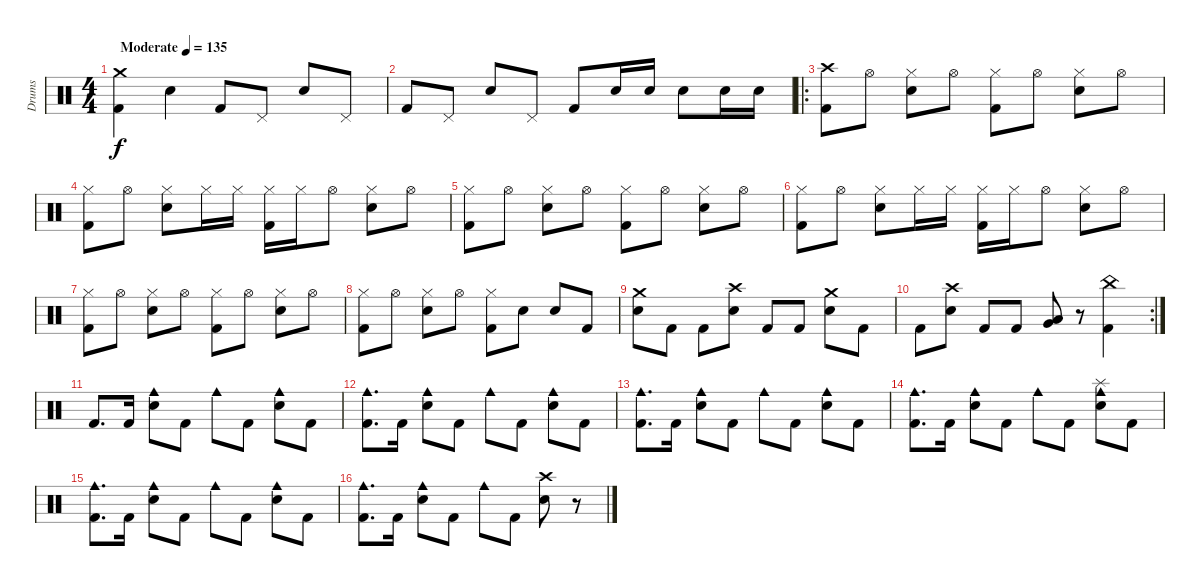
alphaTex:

\track ("Drums" "Drums") {instrument percussion}
\staff {score}
\articulation defaults
\ts (4 4)
\tempo (135 "Moderate")
\clef neutral
\ks c
("Crash medium (hit)" "Kick (hit) 2").4{dy f} "Snare (hit) 2".4 "Kick (hit) 2".8 "Pedal Hi-Hat (hit)".8 "Snare (hit) 2".8 "Pedal Hi-Hat (hit)".8 |
"Kick (hit) 2".8 "Pedal Hi-Hat (hit)".8 "Snare (hit) 2".8 "Pedal Hi-Hat (hit)".8 "Kick (hit) 2".8 "Snare (hit) 2".16 "Snare (hit) 2".16 "Snare (hit) 2".8 "Snare (hit) 2".16 "Snare (hit) 2".16 |
\ro
("Crash high (hit)" "Kick (hit) 2").8 "Hi-Hat (open)".8 ("Hi-Hat (closed)" "Snare (hit) 2").8 "Hi-Hat (open)".8 ("Hi-Hat (closed)" "Kick (hit) 2").8 "Hi-Hat (open)".8 ("Hi-Hat (closed)" "Snare (hit) 2").8 "Hi-Hat (open)".8 |
("Hi-Hat (closed)" "Kick (hit) 2").8 "Hi-Hat (open)".8 ("Hi-Hat (closed)" "Snare (hit) 2").8 "Hi-Hat (closed)".16 "Hi-Hat (closed)".16 ("Hi-Hat (closed)" "Kick (hit) 2").16 "Hi-Hat (closed)".16 "Hi-Hat (open)".8 ("Hi-Hat (closed)" "Snare (hit) 2").8 "Hi-Hat (open)".8 |
("Hi-Hat (closed)" "Kick (hit) 2").8 "Hi-Hat (open)".8 ("Hi-Hat (closed)" "Snare (hit) 2").8 "Hi-Hat (open)".8 ("Hi-Hat (closed)" "Kick (hit) 2").8 "Hi-Hat (open)".8 ("Hi-Hat (closed)" "Snare (hit) 2").8 "Hi-Hat (open)".8 |
("Hi-Hat (closed)" "Kick (hit) 2").8 "Hi-Hat (open)".8 ("Hi-Hat (closed)" "Snare (hit) 2").8 "Hi-Hat (closed)".16 "Hi-Hat (closed)".16 ("Hi-Hat (closed)" "Kick (hit) 2").16 "Hi-Hat (closed)".16 "Hi-Hat (open)".8 ("Hi-Hat (closed)" "Snare (hit) 2").8 "Hi-Hat (open)".8 |
("Hi-Hat (closed)" "Kick (hit) 2").8 "Hi-Hat (open)".8 ("Hi-Hat (closed)" "Snare (hit) 2").8 "Hi-Hat (open)".8 ("Hi-Hat (closed)" "Kick (hit) 2").8 "Hi-Hat (open)".8 ("Hi-Hat (closed)" "Snare (hit) 2").8 "Hi-Hat (open)".8 |
("Hi-Hat (closed)" "Kick (hit) 2").8 "Hi-Hat (open)".8 ("Hi-Hat (closed)" "Snare (hit) 2").8 "Hi-Hat (open)".8 ("Hi-Hat (closed)" "Kick (hit) 2").8 "Snare (hit) 2".8 "Snare (hit) 2".8 "Kick (hit) 2".8 |
("Crash medium (hit)" "Snare (hit) 2").8 "Kick (hit) 2".8 "Kick (hit) 2".8 ("Crash high (hit)" "Snare (hit) 2").8 "Kick (hit) 2".8 "Kick (hit) 2".8 ("Crash medium (hit)" "Snare (hit) 2").8 "Kick (hit) 2".8 |
\rc 2 "Kick (hit) 2".8
("Crash high (hit)" "Snare (hit) 2").8 "Kick (hit) 2".8 "Kick (hit) 2".8 ("Very Low Tom (hit)" "Low Tom (hit)").8 r.8 ("China (hit)" "Kick (hit) 2").4 |
"Kick (hit) 2".8{d} "Kick (hit) 2".16 ("Cowbell medium (hit)" "Snare (hit) 2").8 "Kick (hit) 2".8 "Cowbell medium (hit)".8 "Kick (hit) 2".8 ("Cowbell medium (hit)" "Snare (hit) 2").8 "Kick (hit) 2".8 |
("Cowbell medium (hit)" "Kick (hit) 2").8{d} "Kick (hit) 2".16 ("Cowbell medium (hit)" "Snare (hit) 2").8 "Kick (hit) 2".8 "Cowbell medium (hit)".8 "Kick (hit) 2".8 ("Cowbell medium (hit)" "Snare (hit) 2").8 "Kick (hit) 2".8 |
("Cowbell medium (hit)" "Kick (hit) 2").8{d} "Kick (hit) 2".16 ("Cowbell medium (hit)" "Snare (hit) 2").8 "Kick (hit) 2".8 "Cowbell medium (hit)".8 "Kick (hit) 2".8 ("Cowbell medium (hit)" "Snare (hit) 2").8 "Kick (hit) 2".8 |
("Cowbell medium (hit)" "Kick (hit) 2").8{d} "Kick (hit) 2".16 ("Cowbell medium (hit)" "Snare (hit) 2").8 "Kick (hit) 2".8 "Cowbell medium (hit)".8 "Kick (hit) 2".8 ("Splash (hit)" "Cowbell medium (hit)" "Snare (hit) 2").8 "Kick (hit) 2".8 |
("Cowbell medium (hit)" "Kick (hit) 2").8{d} "Kick (hit) 2".16 ("Cowbell medium (hit)" "Snare (hit) 2").8 "Kick (hit) 2".8 "Cowbell medium (hit)".8 "Kick (hit) 2".8 ("Cowbell medium (hit)" "Snare (hit) 2").8 "Kick (hit) 2".8 |
("Cowbell medium (hit)" "Kick (hit) 2").8{d} "Kick (hit) 2".16 ("Cowbell medium (hit)" "Snare (hit) 2").8 "Kick (hit) 2".8 "Cowbell medium (hit)".8 "Kick (hit) 2".8 ("Crash high (hit)" "Snare (hit) 2").8 r.8
